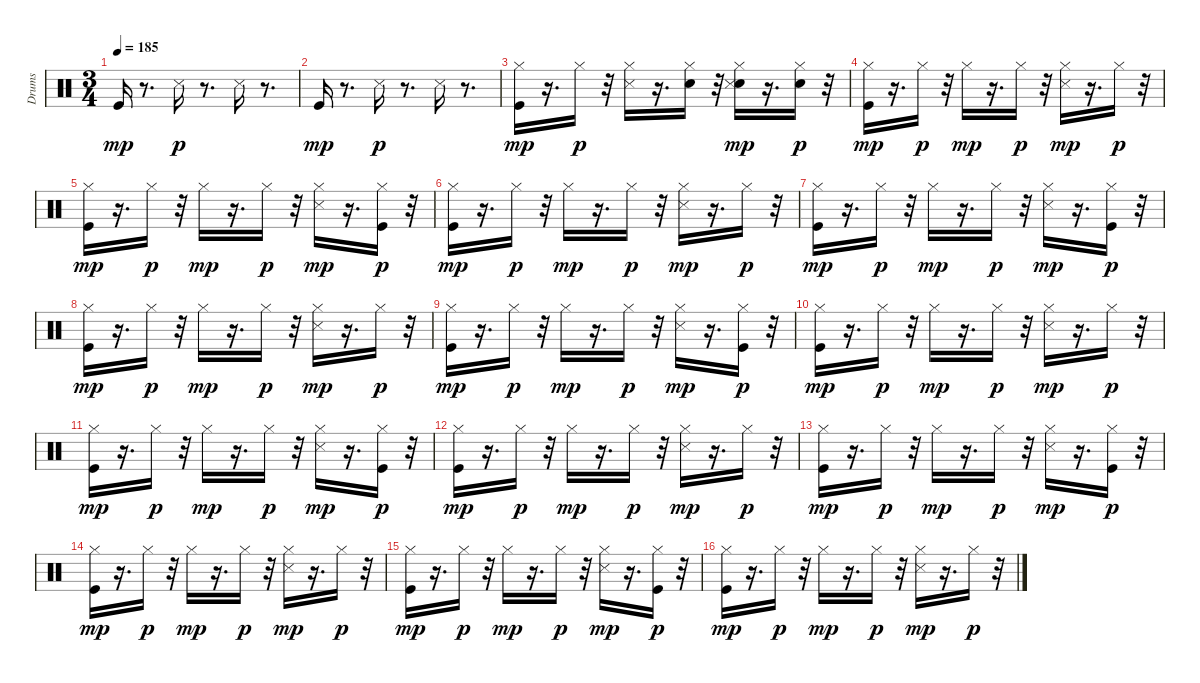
\track ("Drums " "Drums ") {instrument percussion}
\staff {score}
\articulation defaults
\ts (3 4)
\tempo 185
\clef neutral
\ks c "Kick (hit)".16{dy mp}
r.8{d} "Snare (side stick) 3".16{dy p} r.8{d} "Snare (side stick) 3".16 r.8{d} |
"Kick (hit)".16{dy mp} r.8{d} "Snare (side stick) 3".16{dy p} r.8{d} "Snare (side stick) 3".16 r.8{d} |
("Kick (hit)" "Hi-Hat (closed)").16{dy mp} r.16{d} "Hi-Hat (closed)".16{dy p} r.32 ("Hi-Hat (closed)" "Snare (side stick) 3").16 r.16{d} ("Snare (hit) 2" "Hi-Hat (closed)").16 r.32 ("Snare (hit) 2" "Hi-Hat (closed)" "Snare (side stick) 3").16{dy mp} r.16{d} ("Snare (hit) 2" "Hi-Hat (closed)").16{dy p} r.32 |
("Kick (hit)" "Hi-Hat (closed)").16{dy mp} r.16{d} "Hi-Hat (closed)".16{dy p} r.32 "Hi-Hat (closed)".16{dy mp} r.16{d} "Hi-Hat (closed)".16{dy p} r.32 ("Hi-Hat (closed)" "Snare (side stick) 3").16{dy mp} r.16{d} "Hi-Hat (closed)".16{dy p} r.32 |
("Kick (hit)" "Hi-Hat (closed)").16{dy mp} r.16{d} "Hi-Hat (closed)".16{dy p} r.32 "Hi-Hat (closed)".16{dy mp} r.16{d} "Hi-Hat (closed)".16{dy p} r.32 ("Hi-Hat (closed)" "Snare (side stick) 3").16{dy mp} r.16{d} ("Kick (hit)" "Hi-Hat (closed)").16{dy p} r.32 |
("Kick (hit)" "Hi-Hat (closed)").16{dy mp} r.16{d} "Hi-Hat (closed)".16{dy p} r.32 "Hi-Hat (closed)".16{dy mp} r.16{d} "Hi-Hat (closed)".16{dy p} r.32 ("Hi-Hat (closed)" "Snare (side stick) 3").16{dy mp} r.16{d} "Hi-Hat (closed)".16{dy p} r.32 |
("Kick (hit)" "Hi-Hat (closed)").16{dy mp} r.16{d} "Hi-Hat (closed)".16{dy p} r.32 "Hi-Hat (closed)".16{dy mp} r.16{d} "Hi-Hat (closed)".16{dy p} r.32 ("Hi-Hat (closed)" "Snare (side stick) 3").16{dy mp} r.16{d} ("Kick (hit)" "Hi-Hat (closed)").16{dy p} r.32 |
("Kick (hit)" "Hi-Hat (closed)").16{dy mp} r.16{d} "Hi-Hat (closed)".16{dy p} r.32 "Hi-Hat (closed)".16{dy mp} r.16{d} "Hi-Hat (closed)".16{dy p} r.32 ("Hi-Hat (closed)" "Snare (side stick) 3").16{dy mp} r.16{d} "Hi-Hat (closed)".16{dy p} r.32 |
("Kick (hit)" "Hi-Hat (closed)").16{dy mp} r.16{d} "Hi-Hat (closed)".16{dy p} r.32 "Hi-Hat (closed)".16{dy mp} r.16{d} "Hi-Hat (closed)".16{dy p} r.32 ("Hi-Hat (closed)" "Snare (side stick) 3").16{dy mp} r.16{d} ("Kick (hit)" "Hi-Hat (closed)").16{dy p} r.32 |
("Kick (hit)" "Hi-Hat (closed)").16{dy mp} r.16{d} "Hi-Hat (closed)".16{dy p} r.32 "Hi-Hat (closed)".16{dy mp} r.16{d} "Hi-Hat (closed)".16{dy p} r.32 ("Hi-Hat (closed)" "Snare (side stick) 3").16{dy mp} r.16{d} "Hi-Hat (closed)".16{dy p} r.32 |
("Kick (hit)" "Hi-Hat (closed)").16{dy mp} r.16{d} "Hi-Hat (closed)".16{dy p} r.32 "Hi-Hat (closed)".16{dy mp} r.16{d} "Hi-Hat (closed)".16{dy p} r.32 ("Hi-Hat (closed)" "Snare (side stick) 3").16{dy mp} r.16{d} ("Kick (hit)" "Hi-Hat (closed)").16{dy p} r.32 |
("Kick (hit)" "Hi-Hat (closed)").16{dy mp} r.16{d} "Hi-Hat (closed)".16{dy p} r.32 "Hi-Hat (closed)".16{dy mp} r.16{d} "Hi-Hat (closed)".16{dy p} r.32 ("Hi-Hat (closed)" "Snare (side stick) 3").16{dy mp} r.16{d} "Hi-Hat (closed)".16{dy p} r.32 |
("Kick (hit)" "Hi-Hat (closed)").16{dy mp} r.16{d} "Hi-Hat (closed)".16{dy p} r.32 "Hi-Hat (closed)".16{dy mp} r.16{d} "Hi-Hat (closed)".16{dy p} r.32 ("Hi-Hat (closed)" "Snare (side stick) 3").16{dy mp} r.16{d} ("Kick (hit)" "Hi-Hat (closed)").16{dy p} r.32 |
("Kick (hit)" "Hi-Hat (closed)").16{dy mp} r.16{d} "Hi-Hat (closed)".16{dy p} r.32 "Hi-Hat (closed)".16{dy mp} r.16{d} "Hi-Hat (closed)".16{dy p} r.32 ("Hi-Hat (closed)" "Snare (side stick) 3").16{dy mp} r.16{d} "Hi-Hat (closed)".16{dy p} r.32 |
("Kick (hit)" "Hi-Hat (closed)").16{dy mp} r.16{d} "Hi-Hat (closed)".16{dy p} r.32 "Hi-Hat (closed)".16{dy mp} r.16{d} "Hi-Hat (closed)".16{dy p} r.32 ("Hi-Hat (closed)" "Snare (side stick) 3").16{dy mp} r.16{d} ("Kick (hit)" "Hi-Hat (closed)").16{dy p} r.32 |
("Kick (hit)" "Hi-Hat (closed)").16{dy mp} r.16{d} "Hi-Hat (closed)".16{dy p} r.32 "Hi-Hat (closed)".16{dy mp} r.16{d} "Hi-Hat (closed)".16{dy p} r.32 ("Hi-Hat (closed)" "Snare (side stick) 3").16{dy mp} r.16{d} "Hi-Hat (closed)".16{dy p} r.32
